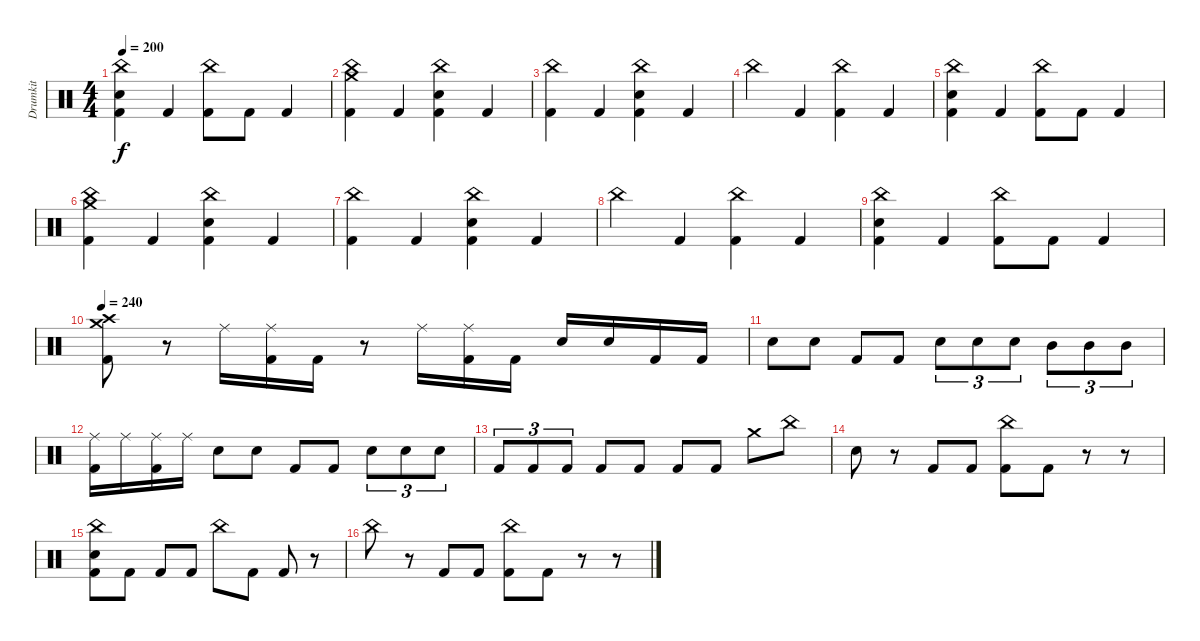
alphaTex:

\track ("Drumkit" "Drumkit") {instrument percussion}
\staff {score}
\articulation defaults
\ts (4 4)
\tempo 200
\clef neutral
\ks c
("China (hit)" "Electric Snare (hit)" "Kick (hit) 2").4{dy f} "Kick (hit) 2".4 ("China (hit)" "Kick (hit) 2").8 "Kick (hit) 2".8 "Kick (hit) 2".4 |
("Crash medium (hit)" "China (hit)" "Kick (hit) 2").4 "Kick (hit) 2".4 ("China (hit)" "Electric Snare (hit)" "Kick (hit) 2").4 "Kick (hit) 2".4 |
("China (hit)" "Kick (hit) 2").4 "Kick (hit) 2".4 ("China (hit)" "Electric Snare (hit)" "Kick (hit) 2").4 "Kick (hit) 2".4 |
"China (hit)".4 "Kick (hit) 2".4 ("China (hit)" "Kick (hit) 2").4 "Kick (hit) 2".4 |
("China (hit)" "Electric Snare (hit)" "Kick (hit) 2").4 "Kick (hit) 2".4 ("China (hit)" "Kick (hit) 2").8 "Kick (hit) 2".8 "Kick (hit) 2".4 |
("Crash medium (hit)" "China (hit)" "Kick (hit) 2").4 "Kick (hit) 2".4 ("China (hit)" "Electric Snare (hit)" "Kick (hit) 2").4 "Kick (hit) 2".4 |
("China (hit)" "Kick (hit) 2").4 "Kick (hit) 2".4 ("China (hit)" "Electric Snare (hit)" "Kick (hit) 2").4 "Kick (hit) 2".4 |
"China (hit)".4 "Kick (hit) 2".4 ("China (hit)" "Kick (hit) 2").4 "Kick (hit) 2".4 |
("China (hit)" "Electric Snare (hit)" "Kick (hit) 2").4 "Kick (hit) 2".4 ("China (hit)" "Kick (hit) 2").8 "Kick (hit) 2".8 "Kick (hit) 2".4 |
\tempo 240
("Crash medium (hit)" "Crash high (hit)" "Kick (hit) 2").8 r.8 "Ride (middle)".16 ("Ride (middle)" "Kick (hit) 2").16 "Kick (hit) 2".16 r.8 "Ride (middle)".16 ("Ride (middle)" "Kick (hit) 2").16 "Kick (hit) 2".16 "Electric Snare (hit)".16 "Electric Snare (hit)".16 "Kick (hit) 2".16 "Kick (hit) 2".16 |
"Electric Snare (hit)".8 "Electric Snare (hit)".8 "Kick (hit) 2".8 "Kick (hit) 2".8 "Electric Snare (hit)".8{tu (3 2)} "Electric Snare (hit)".8{tu (3 2)} "Electric Snare (hit)".8{tu (3 2)} "Mid Tom (hit)".8{tu (3 2)} "Mid Tom (hit)".8{tu (3 2)} "Mid Tom (hit)".8{tu (3 2)} |
("Ride (middle)" "Kick (hit) 2").16 "Ride (middle)".16 ("Ride (middle)" "Kick (hit) 2").16 "Ride (middle)".16 "Electric Snare (hit)".8 "Electric Snare (hit)".8 "Kick (hit) 2".8 "Kick (hit) 2".8 "Electric Snare (hit)".8{tu (3 2)} "Electric Snare (hit)".8{tu (3 2)} "Electric Snare (hit)".8{tu (3 2)} |
"Kick (hit) 2".8{tu (3 2)} "Kick (hit) 2".8{tu (3 2)} "Kick (hit) 2".8{tu (3 2)} "Kick (hit) 2".8 "Kick (hit) 2".8 "Kick (hit) 2".8 "Kick (hit) 2".8 "Crash medium (hit)".8 "China (hit)".8 |
"Electric Snare (hit)".8 r.8 "Kick (hit) 2".8 "Kick (hit) 2".8 ("China (hit)" "Kick (hit) 2").8 "Kick (hit) 2".8 r.8 r.8 |
("China (hit)" "Electric Snare (hit)" "Kick (hit) 2").8 "Kick (hit) 2".8 "Kick (hit) 2".8 "Kick (hit) 2".8 "China (hit)".8 "Kick (hit) 2".8 "Kick (hit) 2".8 r.8 |
"China (hit)".8 r.8 "Kick (hit) 2".8 "Kick (hit) 2".8 ("China (hit)" "Kick (hit) 2").8 "Kick (hit) 2".8 r.8 r.8
